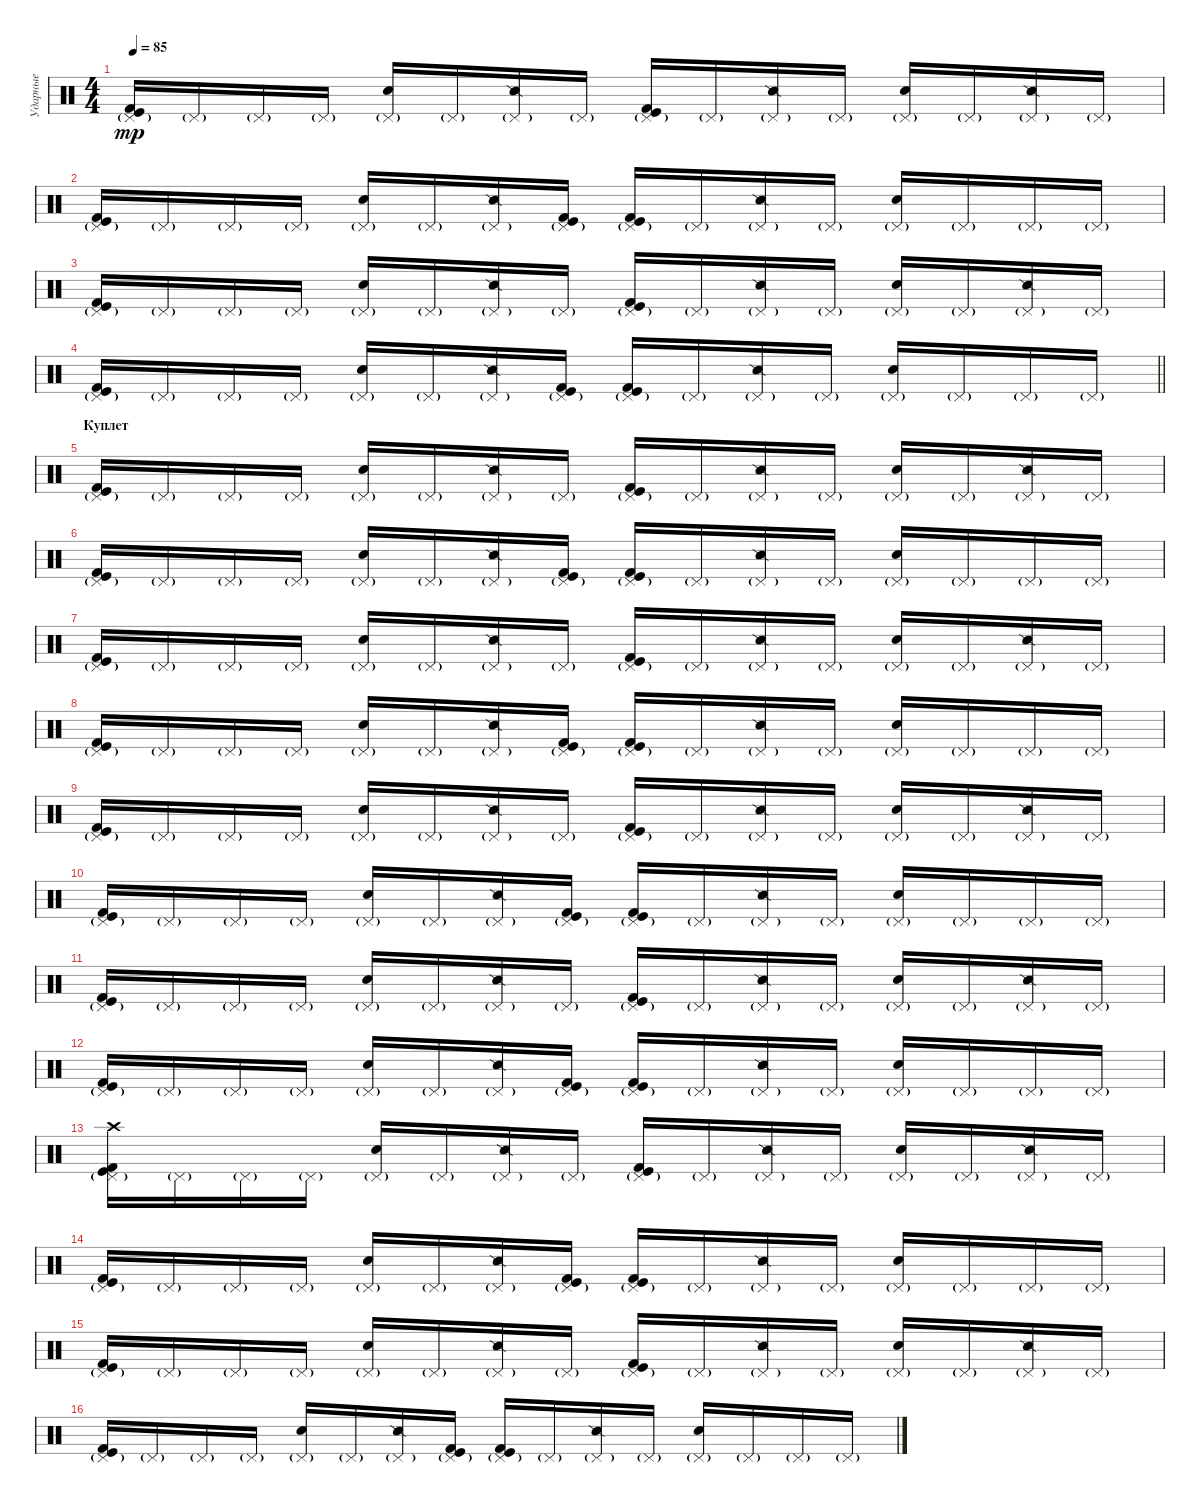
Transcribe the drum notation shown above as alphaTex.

\track ("Ударные" "Ударные") {instrument percussion}
\staff {score}
\articulation defaults
\ts (4 4)
\tempo 85
\clef neutral
\ks c
("Pedal Hi-Hat (hit)"{g} "Kick (hit) 2" "Kick (hit)").16{dy mp} "Pedal Hi-Hat (hit)"{g}.16 "Pedal Hi-Hat (hit)"{g}.16 "Pedal Hi-Hat (hit)"{g}.16 ("Pedal Hi-Hat (hit)"{g} "Electric Snare (hit)").16 "Pedal Hi-Hat (hit)"{g}.16 ("Pedal Hi-Hat (hit)"{g} "Snare (side stick) 2").16 "Pedal Hi-Hat (hit)"{g}.16 ("Pedal Hi-Hat (hit)"{g} "Kick (hit) 2" "Kick (hit)").16 "Pedal Hi-Hat (hit)"{g}.16 ("Pedal Hi-Hat (hit)"{g} "Snare (side stick) 2").16 "Pedal Hi-Hat (hit)"{g}.16 ("Pedal Hi-Hat (hit)"{g} "Electric Snare (hit)").16 "Pedal Hi-Hat (hit)"{g}.16 ("Pedal Hi-Hat (hit)"{g} "Snare (side stick) 2").16 "Pedal Hi-Hat (hit)"{g}.16 |
("Pedal Hi-Hat (hit)"{g} "Kick (hit) 2" "Kick (hit)").16 "Pedal Hi-Hat (hit)"{g}.16 "Pedal Hi-Hat (hit)"{g}.16 "Pedal Hi-Hat (hit)"{g}.16 ("Pedal Hi-Hat (hit)"{g} "Electric Snare (hit)").16 "Pedal Hi-Hat (hit)"{g}.16 ("Pedal Hi-Hat (hit)"{g} "Snare (side stick) 2").16 ("Pedal Hi-Hat (hit)"{g} "Kick (hit) 2" "Kick (hit)").16 ("Pedal Hi-Hat (hit)"{g} "Kick (hit) 2" "Kick (hit)").16 "Pedal Hi-Hat (hit)"{g}.16 ("Pedal Hi-Hat (hit)"{g} "Snare (side stick) 2").16 "Pedal Hi-Hat (hit)"{g}.16 ("Pedal Hi-Hat (hit)"{g} "Electric Snare (hit)").16 "Pedal Hi-Hat (hit)"{g}.16 "Pedal Hi-Hat (hit)"{g}.16 "Pedal Hi-Hat (hit)"{g}.16 |
("Pedal Hi-Hat (hit)"{g} "Kick (hit) 2" "Kick (hit)").16 "Pedal Hi-Hat (hit)"{g}.16 "Pedal Hi-Hat (hit)"{g}.16 "Pedal Hi-Hat (hit)"{g}.16 ("Pedal Hi-Hat (hit)"{g} "Electric Snare (hit)").16 "Pedal Hi-Hat (hit)"{g}.16 ("Pedal Hi-Hat (hit)"{g} "Snare (side stick) 2").16 "Pedal Hi-Hat (hit)"{g}.16 ("Pedal Hi-Hat (hit)"{g} "Kick (hit) 2" "Kick (hit)").16 "Pedal Hi-Hat (hit)"{g}.16 ("Pedal Hi-Hat (hit)"{g} "Snare (side stick) 2").16 "Pedal Hi-Hat (hit)"{g}.16 ("Pedal Hi-Hat (hit)"{g} "Electric Snare (hit)").16 "Pedal Hi-Hat (hit)"{g}.16 ("Pedal Hi-Hat (hit)"{g} "Snare (side stick) 2").16 "Pedal Hi-Hat (hit)"{g}.16 |
\barLineRight lightlight
("Pedal Hi-Hat (hit)"{g} "Kick (hit) 2" "Kick (hit)").16 "Pedal Hi-Hat (hit)"{g}.16 "Pedal Hi-Hat (hit)"{g}.16 "Pedal Hi-Hat (hit)"{g}.16 ("Pedal Hi-Hat (hit)"{g} "Electric Snare (hit)").16 "Pedal Hi-Hat (hit)"{g}.16 ("Pedal Hi-Hat (hit)"{g} "Snare (side stick) 2").16 ("Pedal Hi-Hat (hit)"{g} "Kick (hit) 2" "Kick (hit)").16 ("Pedal Hi-Hat (hit)"{g} "Kick (hit) 2" "Kick (hit)").16 "Pedal Hi-Hat (hit)"{g}.16 ("Pedal Hi-Hat (hit)"{g} "Snare (side stick) 2").16 "Pedal Hi-Hat (hit)"{g}.16 ("Pedal Hi-Hat (hit)"{g} "Electric Snare (hit)").16 "Pedal Hi-Hat (hit)"{g}.16 "Pedal Hi-Hat (hit)"{g}.16 "Pedal Hi-Hat (hit)"{g}.16 |
\section ("" "Куплет")
("Pedal Hi-Hat (hit)"{g} "Kick (hit) 2" "Kick (hit)").16 "Pedal Hi-Hat (hit)"{g}.16 "Pedal Hi-Hat (hit)"{g}.16 "Pedal Hi-Hat (hit)"{g}.16 ("Pedal Hi-Hat (hit)"{g} "Electric Snare (hit)").16 "Pedal Hi-Hat (hit)"{g}.16 ("Pedal Hi-Hat (hit)"{g} "Snare (side stick) 2").16 "Pedal Hi-Hat (hit)"{g}.16 ("Pedal Hi-Hat (hit)"{g} "Kick (hit) 2" "Kick (hit)").16 "Pedal Hi-Hat (hit)"{g}.16 ("Pedal Hi-Hat (hit)"{g} "Snare (side stick) 2").16 "Pedal Hi-Hat (hit)"{g}.16 ("Pedal Hi-Hat (hit)"{g} "Electric Snare (hit)").16 "Pedal Hi-Hat (hit)"{g}.16 ("Pedal Hi-Hat (hit)"{g} "Snare (side stick) 2").16 "Pedal Hi-Hat (hit)"{g}.16 |
("Pedal Hi-Hat (hit)"{g} "Kick (hit) 2" "Kick (hit)").16 "Pedal Hi-Hat (hit)"{g}.16 "Pedal Hi-Hat (hit)"{g}.16 "Pedal Hi-Hat (hit)"{g}.16 ("Pedal Hi-Hat (hit)"{g} "Electric Snare (hit)").16 "Pedal Hi-Hat (hit)"{g}.16 ("Pedal Hi-Hat (hit)"{g} "Snare (side stick) 2").16 ("Pedal Hi-Hat (hit)"{g} "Kick (hit) 2" "Kick (hit)").16 ("Pedal Hi-Hat (hit)"{g} "Kick (hit) 2" "Kick (hit)").16 "Pedal Hi-Hat (hit)"{g}.16 ("Pedal Hi-Hat (hit)"{g} "Snare (side stick) 2").16 "Pedal Hi-Hat (hit)"{g}.16 ("Pedal Hi-Hat (hit)"{g} "Electric Snare (hit)").16 "Pedal Hi-Hat (hit)"{g}.16 "Pedal Hi-Hat (hit)"{g}.16 "Pedal Hi-Hat (hit)"{g}.16 |
("Pedal Hi-Hat (hit)"{g} "Kick (hit) 2" "Kick (hit)").16 "Pedal Hi-Hat (hit)"{g}.16 "Pedal Hi-Hat (hit)"{g}.16 "Pedal Hi-Hat (hit)"{g}.16 ("Pedal Hi-Hat (hit)"{g} "Electric Snare (hit)").16 "Pedal Hi-Hat (hit)"{g}.16 ("Pedal Hi-Hat (hit)"{g} "Snare (side stick) 2").16 "Pedal Hi-Hat (hit)"{g}.16 ("Pedal Hi-Hat (hit)"{g} "Kick (hit) 2" "Kick (hit)").16 "Pedal Hi-Hat (hit)"{g}.16 ("Pedal Hi-Hat (hit)"{g} "Snare (side stick) 2").16 "Pedal Hi-Hat (hit)"{g}.16 ("Pedal Hi-Hat (hit)"{g} "Electric Snare (hit)").16 "Pedal Hi-Hat (hit)"{g}.16 ("Pedal Hi-Hat (hit)"{g} "Snare (side stick) 2").16 "Pedal Hi-Hat (hit)"{g}.16 |
("Pedal Hi-Hat (hit)"{g} "Kick (hit) 2" "Kick (hit)").16 "Pedal Hi-Hat (hit)"{g}.16 "Pedal Hi-Hat (hit)"{g}.16 "Pedal Hi-Hat (hit)"{g}.16 ("Pedal Hi-Hat (hit)"{g} "Electric Snare (hit)").16 "Pedal Hi-Hat (hit)"{g}.16 ("Pedal Hi-Hat (hit)"{g} "Snare (side stick) 2").16 ("Pedal Hi-Hat (hit)"{g} "Kick (hit) 2" "Kick (hit)").16 ("Pedal Hi-Hat (hit)"{g} "Kick (hit) 2" "Kick (hit)").16 "Pedal Hi-Hat (hit)"{g}.16 ("Pedal Hi-Hat (hit)"{g} "Snare (side stick) 2").16 "Pedal Hi-Hat (hit)"{g}.16 ("Pedal Hi-Hat (hit)"{g} "Electric Snare (hit)").16 "Pedal Hi-Hat (hit)"{g}.16 "Pedal Hi-Hat (hit)"{g}.16 "Pedal Hi-Hat (hit)"{g}.16 |
("Pedal Hi-Hat (hit)"{g} "Kick (hit) 2" "Kick (hit)").16 "Pedal Hi-Hat (hit)"{g}.16 "Pedal Hi-Hat (hit)"{g}.16 "Pedal Hi-Hat (hit)"{g}.16 ("Pedal Hi-Hat (hit)"{g} "Electric Snare (hit)").16 "Pedal Hi-Hat (hit)"{g}.16 ("Pedal Hi-Hat (hit)"{g} "Snare (side stick) 2").16 "Pedal Hi-Hat (hit)"{g}.16 ("Pedal Hi-Hat (hit)"{g} "Kick (hit) 2" "Kick (hit)").16 "Pedal Hi-Hat (hit)"{g}.16 ("Pedal Hi-Hat (hit)"{g} "Snare (side stick) 2").16 "Pedal Hi-Hat (hit)"{g}.16 ("Pedal Hi-Hat (hit)"{g} "Electric Snare (hit)").16 "Pedal Hi-Hat (hit)"{g}.16 ("Pedal Hi-Hat (hit)"{g} "Snare (side stick) 2").16 "Pedal Hi-Hat (hit)"{g}.16 |
("Pedal Hi-Hat (hit)"{g} "Kick (hit) 2" "Kick (hit)").16 "Pedal Hi-Hat (hit)"{g}.16 "Pedal Hi-Hat (hit)"{g}.16 "Pedal Hi-Hat (hit)"{g}.16 ("Pedal Hi-Hat (hit)"{g} "Electric Snare (hit)").16 "Pedal Hi-Hat (hit)"{g}.16 ("Pedal Hi-Hat (hit)"{g} "Snare (side stick) 2").16 ("Pedal Hi-Hat (hit)"{g} "Kick (hit) 2" "Kick (hit)").16 ("Pedal Hi-Hat (hit)"{g} "Kick (hit) 2" "Kick (hit)").16 "Pedal Hi-Hat (hit)"{g}.16 ("Pedal Hi-Hat (hit)"{g} "Snare (side stick) 2").16 "Pedal Hi-Hat (hit)"{g}.16 ("Pedal Hi-Hat (hit)"{g} "Electric Snare (hit)").16 "Pedal Hi-Hat (hit)"{g}.16 "Pedal Hi-Hat (hit)"{g}.16 "Pedal Hi-Hat (hit)"{g}.16 |
("Pedal Hi-Hat (hit)"{g} "Kick (hit) 2" "Kick (hit)").16 "Pedal Hi-Hat (hit)"{g}.16 "Pedal Hi-Hat (hit)"{g}.16 "Pedal Hi-Hat (hit)"{g}.16 ("Pedal Hi-Hat (hit)"{g} "Electric Snare (hit)").16 "Pedal Hi-Hat (hit)"{g}.16 ("Pedal Hi-Hat (hit)"{g} "Snare (side stick) 2").16 "Pedal Hi-Hat (hit)"{g}.16 ("Pedal Hi-Hat (hit)"{g} "Kick (hit) 2" "Kick (hit)").16 "Pedal Hi-Hat (hit)"{g}.16 ("Pedal Hi-Hat (hit)"{g} "Snare (side stick) 2").16 "Pedal Hi-Hat (hit)"{g}.16 ("Pedal Hi-Hat (hit)"{g} "Electric Snare (hit)").16 "Pedal Hi-Hat (hit)"{g}.16 ("Pedal Hi-Hat (hit)"{g} "Snare (side stick) 2").16 "Pedal Hi-Hat (hit)"{g}.16 |
("Pedal Hi-Hat (hit)"{g} "Kick (hit) 2" "Kick (hit)").16 "Pedal Hi-Hat (hit)"{g}.16 "Pedal Hi-Hat (hit)"{g}.16 "Pedal Hi-Hat (hit)"{g}.16 ("Pedal Hi-Hat (hit)"{g} "Electric Snare (hit)").16 "Pedal Hi-Hat (hit)"{g}.16 ("Pedal Hi-Hat (hit)"{g} "Snare (side stick) 2").16 ("Pedal Hi-Hat (hit)"{g} "Kick (hit) 2" "Kick (hit)").16 ("Pedal Hi-Hat (hit)"{g} "Kick (hit) 2" "Kick (hit)").16 "Pedal Hi-Hat (hit)"{g}.16 ("Pedal Hi-Hat (hit)"{g} "Snare (side stick) 2").16 "Pedal Hi-Hat (hit)"{g}.16 ("Pedal Hi-Hat (hit)"{g} "Electric Snare (hit)").16 "Pedal Hi-Hat (hit)"{g}.16 "Pedal Hi-Hat (hit)"{g}.16 "Pedal Hi-Hat (hit)"{g}.16 |
("Pedal Hi-Hat (hit)"{g} "Crash high (hit)" "Kick (hit) 2" "Kick (hit)").16 "Pedal Hi-Hat (hit)"{g}.16 "Pedal Hi-Hat (hit)"{g}.16 "Pedal Hi-Hat (hit)"{g}.16 ("Pedal Hi-Hat (hit)"{g} "Electric Snare (hit)").16 "Pedal Hi-Hat (hit)"{g}.16 ("Pedal Hi-Hat (hit)"{g} "Snare (side stick) 2").16 "Pedal Hi-Hat (hit)"{g}.16 ("Pedal Hi-Hat (hit)"{g} "Kick (hit) 2" "Kick (hit)").16 "Pedal Hi-Hat (hit)"{g}.16 ("Pedal Hi-Hat (hit)"{g} "Snare (side stick) 2").16 "Pedal Hi-Hat (hit)"{g}.16 ("Pedal Hi-Hat (hit)"{g} "Electric Snare (hit)").16 "Pedal Hi-Hat (hit)"{g}.16 ("Pedal Hi-Hat (hit)"{g} "Snare (side stick) 2").16 "Pedal Hi-Hat (hit)"{g}.16 |
("Pedal Hi-Hat (hit)"{g} "Kick (hit) 2" "Kick (hit)").16 "Pedal Hi-Hat (hit)"{g}.16 "Pedal Hi-Hat (hit)"{g}.16 "Pedal Hi-Hat (hit)"{g}.16 ("Pedal Hi-Hat (hit)"{g} "Electric Snare (hit)").16 "Pedal Hi-Hat (hit)"{g}.16 ("Pedal Hi-Hat (hit)"{g} "Snare (side stick) 2").16 ("Pedal Hi-Hat (hit)"{g} "Kick (hit) 2" "Kick (hit)").16 ("Pedal Hi-Hat (hit)"{g} "Kick (hit) 2" "Kick (hit)").16 "Pedal Hi-Hat (hit)"{g}.16 ("Pedal Hi-Hat (hit)"{g} "Snare (side stick) 2").16 "Pedal Hi-Hat (hit)"{g}.16 ("Pedal Hi-Hat (hit)"{g} "Electric Snare (hit)").16 "Pedal Hi-Hat (hit)"{g}.16 "Pedal Hi-Hat (hit)"{g}.16 "Pedal Hi-Hat (hit)"{g}.16 |
("Pedal Hi-Hat (hit)"{g} "Kick (hit) 2" "Kick (hit)").16 "Pedal Hi-Hat (hit)"{g}.16 "Pedal Hi-Hat (hit)"{g}.16 "Pedal Hi-Hat (hit)"{g}.16 ("Pedal Hi-Hat (hit)"{g} "Electric Snare (hit)").16 "Pedal Hi-Hat (hit)"{g}.16 ("Pedal Hi-Hat (hit)"{g} "Snare (side stick) 2").16 "Pedal Hi-Hat (hit)"{g}.16 ("Pedal Hi-Hat (hit)"{g} "Kick (hit) 2" "Kick (hit)").16 "Pedal Hi-Hat (hit)"{g}.16 ("Pedal Hi-Hat (hit)"{g} "Snare (side stick) 2").16 "Pedal Hi-Hat (hit)"{g}.16 ("Pedal Hi-Hat (hit)"{g} "Electric Snare (hit)").16 "Pedal Hi-Hat (hit)"{g}.16 ("Pedal Hi-Hat (hit)"{g} "Snare (side stick) 2").16 "Pedal Hi-Hat (hit)"{g}.16 |
("Pedal Hi-Hat (hit)"{g} "Kick (hit) 2" "Kick (hit)").16 "Pedal Hi-Hat (hit)"{g}.16 "Pedal Hi-Hat (hit)"{g}.16 "Pedal Hi-Hat (hit)"{g}.16 ("Pedal Hi-Hat (hit)"{g} "Electric Snare (hit)").16 "Pedal Hi-Hat (hit)"{g}.16 ("Pedal Hi-Hat (hit)"{g} "Snare (side stick) 2").16 ("Pedal Hi-Hat (hit)"{g} "Kick (hit) 2" "Kick (hit)").16 ("Pedal Hi-Hat (hit)"{g} "Kick (hit) 2" "Kick (hit)").16 "Pedal Hi-Hat (hit)"{g}.16 ("Pedal Hi-Hat (hit)"{g} "Snare (side stick) 2").16 "Pedal Hi-Hat (hit)"{g}.16 ("Pedal Hi-Hat (hit)"{g} "Electric Snare (hit)").16 "Pedal Hi-Hat (hit)"{g}.16 "Pedal Hi-Hat (hit)"{g}.16 "Pedal Hi-Hat (hit)"{g}.16
